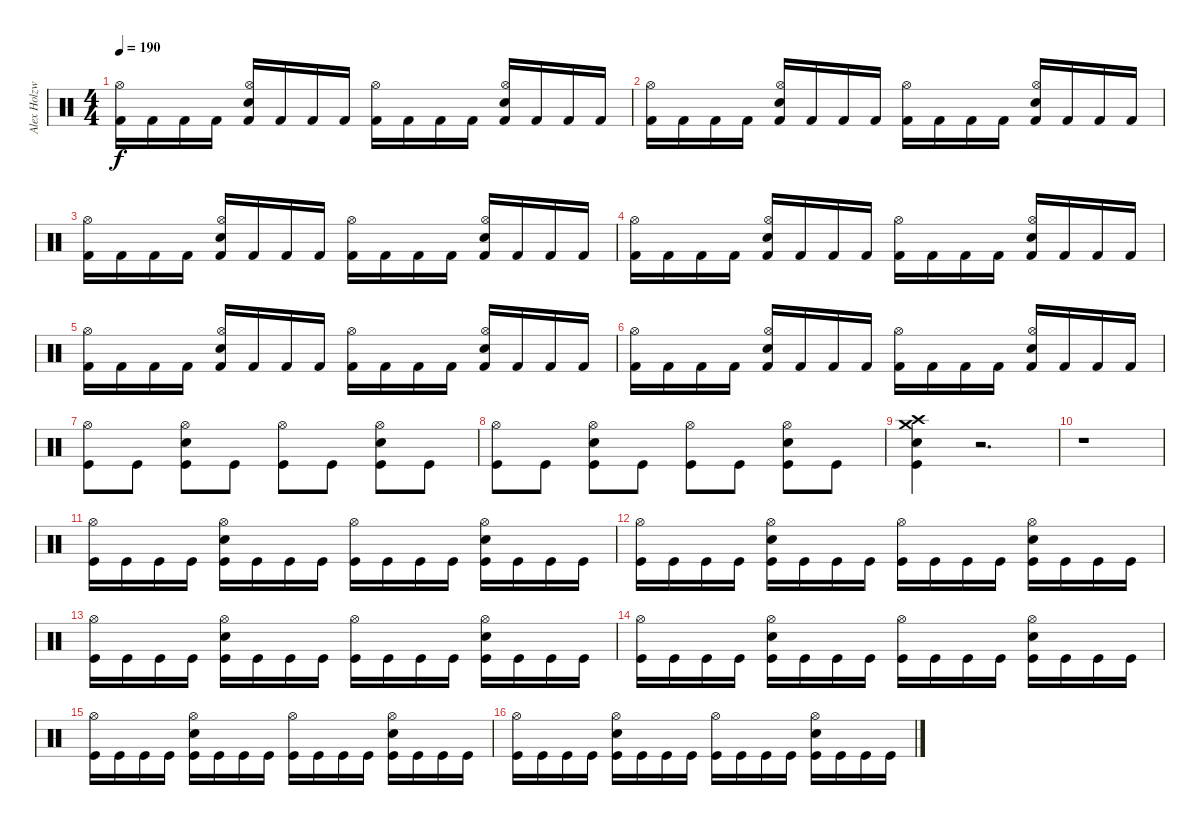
\track ("Alex Holzwarth" "Alex Holzw") {instrument percussion}
\staff {score}
\articulation defaults
\ts (4 4)
\tempo 190
\clef neutral
\ks c
("Kick (hit) 2" "Hi-Hat (open)").16{dy f} "Kick (hit) 2".16 "Kick (hit) 2".16 "Kick (hit) 2".16 ("Kick (hit) 2" "Electric Snare (hit)" "Hi-Hat (open)").16 "Kick (hit) 2".16 "Kick (hit) 2".16 "Kick (hit) 2".16 ("Kick (hit) 2" "Hi-Hat (open)").16 "Kick (hit) 2".16 "Kick (hit) 2".16 "Kick (hit) 2".16 ("Kick (hit) 2" "Electric Snare (hit)" "Hi-Hat (open)").16 "Kick (hit) 2".16 "Kick (hit) 2".16 "Kick (hit) 2".16 |
("Kick (hit) 2" "Hi-Hat (open)").16 "Kick (hit) 2".16 "Kick (hit) 2".16 "Kick (hit) 2".16 ("Kick (hit) 2" "Electric Snare (hit)" "Hi-Hat (open)").16 "Kick (hit) 2".16 "Kick (hit) 2".16 "Kick (hit) 2".16 ("Kick (hit) 2" "Hi-Hat (open)").16 "Kick (hit) 2".16 "Kick (hit) 2".16 "Kick (hit) 2".16 ("Kick (hit) 2" "Electric Snare (hit)" "Hi-Hat (open)").16 "Kick (hit) 2".16 "Kick (hit) 2".16 "Kick (hit) 2".16 |
("Kick (hit) 2" "Hi-Hat (open)").16 "Kick (hit) 2".16 "Kick (hit) 2".16 "Kick (hit) 2".16 ("Kick (hit) 2" "Electric Snare (hit)" "Hi-Hat (open)").16 "Kick (hit) 2".16 "Kick (hit) 2".16 "Kick (hit) 2".16 ("Kick (hit) 2" "Hi-Hat (open)").16 "Kick (hit) 2".16 "Kick (hit) 2".16 "Kick (hit) 2".16 ("Kick (hit) 2" "Electric Snare (hit)" "Hi-Hat (open)").16 "Kick (hit) 2".16 "Kick (hit) 2".16 "Kick (hit) 2".16 |
("Kick (hit) 2" "Hi-Hat (open)").16 "Kick (hit) 2".16 "Kick (hit) 2".16 "Kick (hit) 2".16 ("Kick (hit) 2" "Electric Snare (hit)" "Hi-Hat (open)").16 "Kick (hit) 2".16 "Kick (hit) 2".16 "Kick (hit) 2".16 ("Kick (hit) 2" "Hi-Hat (open)").16 "Kick (hit) 2".16 "Kick (hit) 2".16 "Kick (hit) 2".16 ("Kick (hit) 2" "Electric Snare (hit)" "Hi-Hat (open)").16 "Kick (hit) 2".16 "Kick (hit) 2".16 "Kick (hit) 2".16 |
("Kick (hit) 2" "Hi-Hat (open)").16 "Kick (hit) 2".16 "Kick (hit) 2".16 "Kick (hit) 2".16 ("Kick (hit) 2" "Electric Snare (hit)" "Hi-Hat (open)").16 "Kick (hit) 2".16 "Kick (hit) 2".16 "Kick (hit) 2".16 ("Kick (hit) 2" "Hi-Hat (open)").16 "Kick (hit) 2".16 "Kick (hit) 2".16 "Kick (hit) 2".16 ("Kick (hit) 2" "Electric Snare (hit)" "Hi-Hat (open)").16 "Kick (hit) 2".16 "Kick (hit) 2".16 "Kick (hit) 2".16 |
("Kick (hit) 2" "Hi-Hat (open)").16 "Kick (hit) 2".16 "Kick (hit) 2".16 "Kick (hit) 2".16 ("Kick (hit) 2" "Electric Snare (hit)" "Hi-Hat (open)").16 "Kick (hit) 2".16 "Kick (hit) 2".16 "Kick (hit) 2".16 ("Kick (hit) 2" "Hi-Hat (open)").16 "Kick (hit) 2".16 "Kick (hit) 2".16 "Kick (hit) 2".16 ("Kick (hit) 2" "Electric Snare (hit)" "Hi-Hat (open)").16 "Kick (hit) 2".16 "Kick (hit) 2".16 "Kick (hit) 2".16 |
("Kick (hit)" "Hi-Hat (open)").8 "Kick (hit)".8 ("Kick (hit)" "Electric Snare (hit)" "Hi-Hat (open)").8 "Kick (hit)".8 ("Kick (hit)" "Hi-Hat (open)").8 "Kick (hit)".8 ("Kick (hit)" "Electric Snare (hit)" "Hi-Hat (open)").8 "Kick (hit)".8 |
("Kick (hit)" "Hi-Hat (open)").8 "Kick (hit)".8 ("Kick (hit)" "Electric Snare (hit)" "Hi-Hat (open)").8 "Kick (hit)".8 ("Kick (hit)" "Hi-Hat (open)").8 "Kick (hit)".8 ("Kick (hit)" "Electric Snare (hit)" "Hi-Hat (open)").8 "Kick (hit)".8 |
("Kick (hit)" "Electric Snare (hit)" "Crash medium (hit)" "Crash high (hit)").4 r.2{d} |
r.1 |
("Kick (hit)" "Hi-Hat (open)").16 "Kick (hit)".16 "Kick (hit)".16 "Kick (hit)".16 ("Kick (hit)" "Electric Snare (hit)" "Hi-Hat (open)").16 "Kick (hit)".16 "Kick (hit)".16 "Kick (hit)".16 ("Kick (hit)" "Hi-Hat (open)").16 "Kick (hit)".16 "Kick (hit)".16 "Kick (hit)".16 ("Kick (hit)" "Electric Snare (hit)" "Hi-Hat (open)").16 "Kick (hit)".16 "Kick (hit)".16 "Kick (hit)".16 |
("Kick (hit)" "Hi-Hat (open)").16 "Kick (hit)".16 "Kick (hit)".16 "Kick (hit)".16 ("Kick (hit)" "Electric Snare (hit)" "Hi-Hat (open)").16 "Kick (hit)".16 "Kick (hit)".16 "Kick (hit)".16 ("Kick (hit)" "Hi-Hat (open)").16 "Kick (hit)".16 "Kick (hit)".16 "Kick (hit)".16 ("Kick (hit)" "Electric Snare (hit)" "Hi-Hat (open)").16 "Kick (hit)".16 "Kick (hit)".16 "Kick (hit)".16 |
("Kick (hit)" "Hi-Hat (open)").16 "Kick (hit)".16 "Kick (hit)".16 "Kick (hit)".16 ("Kick (hit)" "Electric Snare (hit)" "Hi-Hat (open)").16 "Kick (hit)".16 "Kick (hit)".16 "Kick (hit)".16 ("Kick (hit)" "Hi-Hat (open)").16 "Kick (hit)".16 "Kick (hit)".16 "Kick (hit)".16 ("Kick (hit)" "Electric Snare (hit)" "Hi-Hat (open)").16 "Kick (hit)".16 "Kick (hit)".16 "Kick (hit)".16 |
("Kick (hit)" "Hi-Hat (open)").16 "Kick (hit)".16 "Kick (hit)".16 "Kick (hit)".16 ("Kick (hit)" "Electric Snare (hit)" "Hi-Hat (open)").16 "Kick (hit)".16 "Kick (hit)".16 "Kick (hit)".16 ("Kick (hit)" "Hi-Hat (open)").16 "Kick (hit)".16 "Kick (hit)".16 "Kick (hit)".16 ("Kick (hit)" "Electric Snare (hit)" "Hi-Hat (open)").16 "Kick (hit)".16 "Kick (hit)".16 "Kick (hit)".16 |
("Kick (hit)" "Hi-Hat (open)").16 "Kick (hit)".16 "Kick (hit)".16 "Kick (hit)".16 ("Kick (hit)" "Electric Snare (hit)" "Hi-Hat (open)").16 "Kick (hit)".16 "Kick (hit)".16 "Kick (hit)".16 ("Kick (hit)" "Hi-Hat (open)").16 "Kick (hit)".16 "Kick (hit)".16 "Kick (hit)".16 ("Kick (hit)" "Electric Snare (hit)" "Hi-Hat (open)").16 "Kick (hit)".16 "Kick (hit)".16 "Kick (hit)".16 |
("Kick (hit)" "Hi-Hat (open)").16 "Kick (hit)".16 "Kick (hit)".16 "Kick (hit)".16 ("Kick (hit)" "Electric Snare (hit)" "Hi-Hat (open)").16 "Kick (hit)".16 "Kick (hit)".16 "Kick (hit)".16 ("Kick (hit)" "Hi-Hat (open)").16 "Kick (hit)".16 "Kick (hit)".16 "Kick (hit)".16 ("Kick (hit)" "Electric Snare (hit)" "Hi-Hat (open)").16 "Kick (hit)".16 "Kick (hit)".16 "Kick (hit)".16
